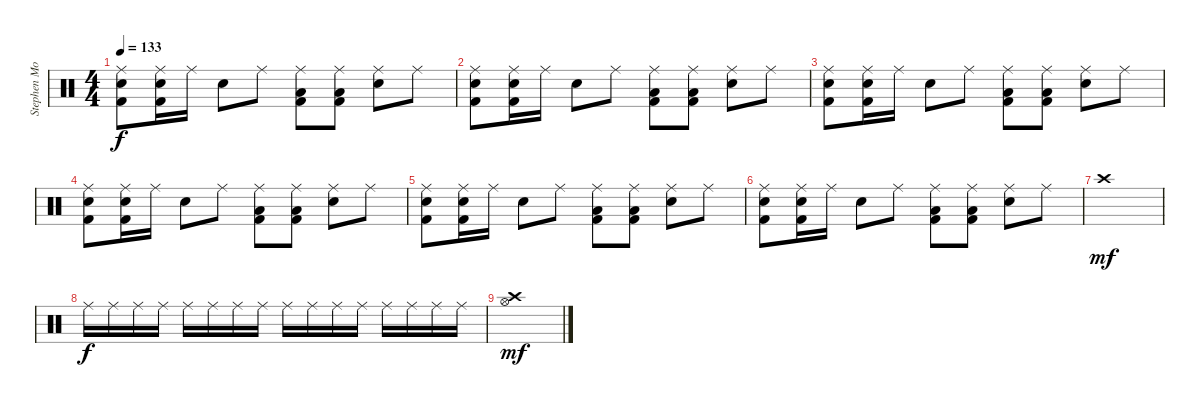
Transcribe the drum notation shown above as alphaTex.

\track ("Stephen Morris - Drums" "Stephen Mo") {instrument percussion}
\staff {score}
\articulation defaults
\ts (4 4)
\tempo 133
\clef neutral
\ks c
("Ride (middle)" "Electric Snare (hit)" "Kick (hit) 2").8{dy f} ("Ride (middle)" "Electric Snare (hit)" "Kick (hit) 2").16 "Ride (middle)".16 "Electric Snare (hit)".8 "Ride (middle)".8 ("Ride (middle)" "Low Tom (hit)" "Kick (hit) 2").8 ("Ride (middle)" "Low Tom (hit)" "Kick (hit) 2").8 ("Ride (middle)" "Electric Snare (hit)").8 "Ride (middle)".8 |
("Ride (middle)" "Electric Snare (hit)" "Kick (hit) 2").8 ("Ride (middle)" "Electric Snare (hit)" "Kick (hit) 2").16 "Ride (middle)".16 "Electric Snare (hit)".8 "Ride (middle)".8 ("Ride (middle)" "Low Tom (hit)" "Kick (hit) 2").8 ("Ride (middle)" "Low Tom (hit)" "Kick (hit) 2").8 ("Ride (middle)" "Electric Snare (hit)").8 "Ride (middle)".8 |
("Ride (middle)" "Electric Snare (hit)" "Kick (hit) 2").8 ("Ride (middle)" "Electric Snare (hit)" "Kick (hit) 2").16 "Ride (middle)".16 "Electric Snare (hit)".8 "Ride (middle)".8 ("Ride (middle)" "Low Tom (hit)" "Kick (hit) 2").8 ("Ride (middle)" "Low Tom (hit)" "Kick (hit) 2").8 ("Ride (middle)" "Electric Snare (hit)").8 "Ride (middle)".8 |
("Ride (middle)" "Electric Snare (hit)" "Kick (hit) 2").8 ("Ride (middle)" "Electric Snare (hit)" "Kick (hit) 2").16 "Ride (middle)".16 "Electric Snare (hit)".8 "Ride (middle)".8 ("Ride (middle)" "Low Tom (hit)" "Kick (hit) 2").8 ("Ride (middle)" "Low Tom (hit)" "Kick (hit) 2").8 ("Ride (middle)" "Electric Snare (hit)").8 "Ride (middle)".8 |
("Ride (middle)" "Electric Snare (hit)" "Kick (hit) 2").8 ("Ride (middle)" "Electric Snare (hit)" "Kick (hit) 2").16 "Ride (middle)".16 "Electric Snare (hit)".8 "Ride (middle)".8 ("Ride (middle)" "Low Tom (hit)" "Kick (hit) 2").8 ("Ride (middle)" "Low Tom (hit)" "Kick (hit) 2").8 ("Ride (middle)" "Electric Snare (hit)").8 "Ride (middle)".8 |
("Ride (middle)" "Electric Snare (hit)" "Kick (hit) 2").8 ("Ride (middle)" "Electric Snare (hit)" "Kick (hit) 2").16 "Ride (middle)".16 "Electric Snare (hit)".8 "Ride (middle)".8 ("Ride (middle)" "Low Tom (hit)" "Kick (hit) 2").8 ("Ride (middle)" "Low Tom (hit)" "Kick (hit) 2").8 ("Ride (middle)" "Electric Snare (hit)").8 "Ride (middle)".8 |
"Crash high (hit)".1{dy mf} |
"Ride (middle)".16{dy f} "Ride (middle)".16 "Ride (middle)".16 "Ride (middle)".16 "Ride (middle)".16 "Ride (middle)".16 "Ride (middle)".16{volume 7} "Ride (middle)".16 "Ride (middle)".16 "Ride (middle)".16 "Ride (middle)".16 "Ride (middle)".16 "Ride (middle)".16 "Ride (middle)".16 "Ride (middle)".16 "Ride (middle)".16 |
("Crash high (hit)" "Hi-Hat (open)").1{dy mf volume 13}
